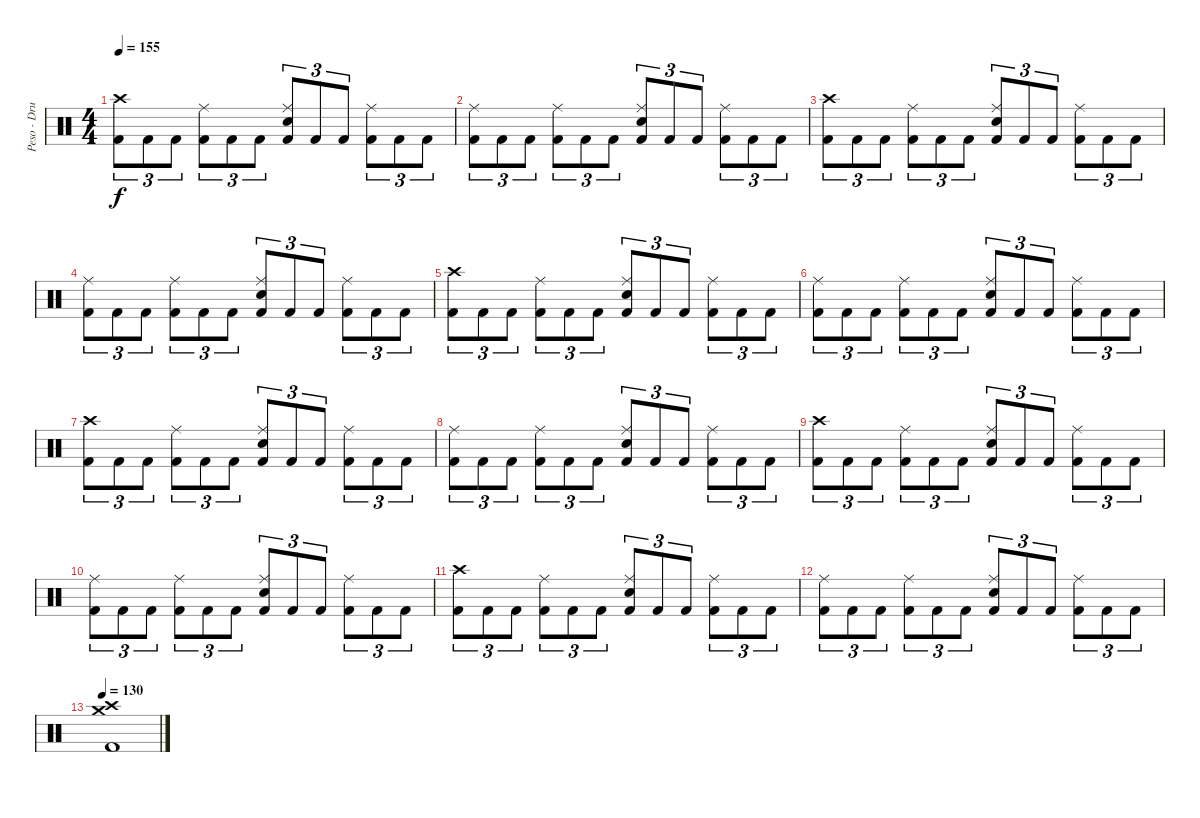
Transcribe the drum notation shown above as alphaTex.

\track ("Peso - Drums" "Peso - Dru") {instrument percussion}
\staff {score}
\articulation defaults
\ts (4 4)
\tempo 155
\clef neutral
\ks c
("Crash high (hit)" "Kick (hit) 2").8{tu (3 2) dy f} "Kick (hit) 2".8{tu (3 2)} "Kick (hit) 2".8{tu (3 2)} ("Ride (middle)" "Kick (hit) 2").8{tu (3 2)} "Kick (hit) 2".8{tu (3 2)} "Kick (hit) 2".8{tu (3 2)} ("Ride (middle)" "Electric Snare (hit)" "Kick (hit) 2").8{tu (3 2)} "Kick (hit) 2".8{tu (3 2)} "Kick (hit) 2".8{tu (3 2)} ("Ride (middle)" "Kick (hit) 2").8{tu (3 2)} "Kick (hit) 2".8{tu (3 2)} "Kick (hit) 2".8{tu (3 2)} |
("Ride (middle)" "Kick (hit) 2").8{tu (3 2)} "Kick (hit) 2".8{tu (3 2)} "Kick (hit) 2".8{tu (3 2)} ("Ride (middle)" "Kick (hit) 2").8{tu (3 2)} "Kick (hit) 2".8{tu (3 2)} "Kick (hit) 2".8{tu (3 2)} ("Ride (middle)" "Electric Snare (hit)" "Kick (hit) 2").8{tu (3 2)} "Kick (hit) 2".8{tu (3 2)} "Kick (hit) 2".8{tu (3 2)} ("Ride (middle)" "Kick (hit) 2").8{tu (3 2)} "Kick (hit) 2".8{tu (3 2)} "Kick (hit) 2".8{tu (3 2)} |
("Crash high (hit)" "Kick (hit) 2").8{tu (3 2)} "Kick (hit) 2".8{tu (3 2)} "Kick (hit) 2".8{tu (3 2)} ("Ride (middle)" "Kick (hit) 2").8{tu (3 2)} "Kick (hit) 2".8{tu (3 2)} "Kick (hit) 2".8{tu (3 2)} ("Ride (middle)" "Electric Snare (hit)" "Kick (hit) 2").8{tu (3 2)} "Kick (hit) 2".8{tu (3 2)} "Kick (hit) 2".8{tu (3 2)} ("Ride (middle)" "Kick (hit) 2").8{tu (3 2)} "Kick (hit) 2".8{tu (3 2)} "Kick (hit) 2".8{tu (3 2)} |
("Ride (middle)" "Kick (hit) 2").8{tu (3 2)} "Kick (hit) 2".8{tu (3 2)} "Kick (hit) 2".8{tu (3 2)} ("Ride (middle)" "Kick (hit) 2").8{tu (3 2)} "Kick (hit) 2".8{tu (3 2)} "Kick (hit) 2".8{tu (3 2)} ("Ride (middle)" "Electric Snare (hit)" "Kick (hit) 2").8{tu (3 2)} "Kick (hit) 2".8{tu (3 2)} "Kick (hit) 2".8{tu (3 2)} ("Ride (middle)" "Kick (hit) 2").8{tu (3 2)} "Kick (hit) 2".8{tu (3 2)} "Kick (hit) 2".8{tu (3 2)} |
("Crash high (hit)" "Kick (hit) 2").8{tu (3 2)} "Kick (hit) 2".8{tu (3 2)} "Kick (hit) 2".8{tu (3 2)} ("Ride (middle)" "Kick (hit) 2").8{tu (3 2)} "Kick (hit) 2".8{tu (3 2)} "Kick (hit) 2".8{tu (3 2)} ("Ride (middle)" "Electric Snare (hit)" "Kick (hit) 2").8{tu (3 2)} "Kick (hit) 2".8{tu (3 2)} "Kick (hit) 2".8{tu (3 2)} ("Ride (middle)" "Kick (hit) 2").8{tu (3 2)} "Kick (hit) 2".8{tu (3 2)} "Kick (hit) 2".8{tu (3 2)} |
("Ride (middle)" "Kick (hit) 2").8{tu (3 2)} "Kick (hit) 2".8{tu (3 2)} "Kick (hit) 2".8{tu (3 2)} ("Ride (middle)" "Kick (hit) 2").8{tu (3 2)} "Kick (hit) 2".8{tu (3 2)} "Kick (hit) 2".8{tu (3 2)} ("Ride (middle)" "Electric Snare (hit)" "Kick (hit) 2").8{tu (3 2)} "Kick (hit) 2".8{tu (3 2)} "Kick (hit) 2".8{tu (3 2)} ("Ride (middle)" "Kick (hit) 2").8{tu (3 2)} "Kick (hit) 2".8{tu (3 2)} "Kick (hit) 2".8{tu (3 2)} |
("Crash high (hit)" "Kick (hit) 2").8{tu (3 2)} "Kick (hit) 2".8{tu (3 2)} "Kick (hit) 2".8{tu (3 2)} ("Ride (middle)" "Kick (hit) 2").8{tu (3 2)} "Kick (hit) 2".8{tu (3 2)} "Kick (hit) 2".8{tu (3 2)} ("Ride (middle)" "Electric Snare (hit)" "Kick (hit) 2").8{tu (3 2)} "Kick (hit) 2".8{tu (3 2)} "Kick (hit) 2".8{tu (3 2)} ("Ride (middle)" "Kick (hit) 2").8{tu (3 2)} "Kick (hit) 2".8{tu (3 2)} "Kick (hit) 2".8{tu (3 2)} |
("Ride (middle)" "Kick (hit) 2").8{tu (3 2)} "Kick (hit) 2".8{tu (3 2)} "Kick (hit) 2".8{tu (3 2)} ("Ride (middle)" "Kick (hit) 2").8{tu (3 2)} "Kick (hit) 2".8{tu (3 2)} "Kick (hit) 2".8{tu (3 2)} ("Ride (middle)" "Electric Snare (hit)" "Kick (hit) 2").8{tu (3 2)} "Kick (hit) 2".8{tu (3 2)} "Kick (hit) 2".8{tu (3 2)} ("Ride (middle)" "Kick (hit) 2").8{tu (3 2)} "Kick (hit) 2".8{tu (3 2)} "Kick (hit) 2".8{tu (3 2)} |
("Crash high (hit)" "Kick (hit) 2").8{tu (3 2)} "Kick (hit) 2".8{tu (3 2)} "Kick (hit) 2".8{tu (3 2)} ("Ride (middle)" "Kick (hit) 2").8{tu (3 2)} "Kick (hit) 2".8{tu (3 2)} "Kick (hit) 2".8{tu (3 2)} ("Ride (middle)" "Electric Snare (hit)" "Kick (hit) 2").8{tu (3 2)} "Kick (hit) 2".8{tu (3 2)} "Kick (hit) 2".8{tu (3 2)} ("Ride (middle)" "Kick (hit) 2").8{tu (3 2)} "Kick (hit) 2".8{tu (3 2)} "Kick (hit) 2".8{tu (3 2)} |
("Ride (middle)" "Kick (hit) 2").8{tu (3 2)} "Kick (hit) 2".8{tu (3 2)} "Kick (hit) 2".8{tu (3 2)} ("Ride (middle)" "Kick (hit) 2").8{tu (3 2)} "Kick (hit) 2".8{tu (3 2)} "Kick (hit) 2".8{tu (3 2)} ("Ride (middle)" "Electric Snare (hit)" "Kick (hit) 2").8{tu (3 2)} "Kick (hit) 2".8{tu (3 2)} "Kick (hit) 2".8{tu (3 2)} ("Ride (middle)" "Kick (hit) 2").8{tu (3 2)} "Kick (hit) 2".8{tu (3 2)} "Kick (hit) 2".8{tu (3 2)} |
("Crash high (hit)" "Kick (hit) 2").8{tu (3 2)} "Kick (hit) 2".8{tu (3 2)} "Kick (hit) 2".8{tu (3 2)} ("Ride (middle)" "Kick (hit) 2").8{tu (3 2)} "Kick (hit) 2".8{tu (3 2)} "Kick (hit) 2".8{tu (3 2)} ("Ride (middle)" "Electric Snare (hit)" "Kick (hit) 2").8{tu (3 2)} "Kick (hit) 2".8{tu (3 2)} "Kick (hit) 2".8{tu (3 2)} ("Ride (middle)" "Kick (hit) 2").8{tu (3 2)} "Kick (hit) 2".8{tu (3 2)} "Kick (hit) 2".8{tu (3 2)} |
("Ride (middle)" "Kick (hit) 2").8{tu (3 2)} "Kick (hit) 2".8{tu (3 2)} "Kick (hit) 2".8{tu (3 2)} ("Ride (middle)" "Kick (hit) 2").8{tu (3 2)} "Kick (hit) 2".8{tu (3 2)} "Kick (hit) 2".8{tu (3 2)} ("Ride (middle)" "Electric Snare (hit)" "Kick (hit) 2").8{tu (3 2)} "Kick (hit) 2".8{tu (3 2)} "Kick (hit) 2".8{tu (3 2)} ("Ride (middle)" "Kick (hit) 2").8{tu (3 2)} "Kick (hit) 2".8{tu (3 2)} "Kick (hit) 2".8{tu (3 2)} |
\tempo 130
("Crash medium (hit)" "Crash high (hit)" "Kick (hit) 2").1
